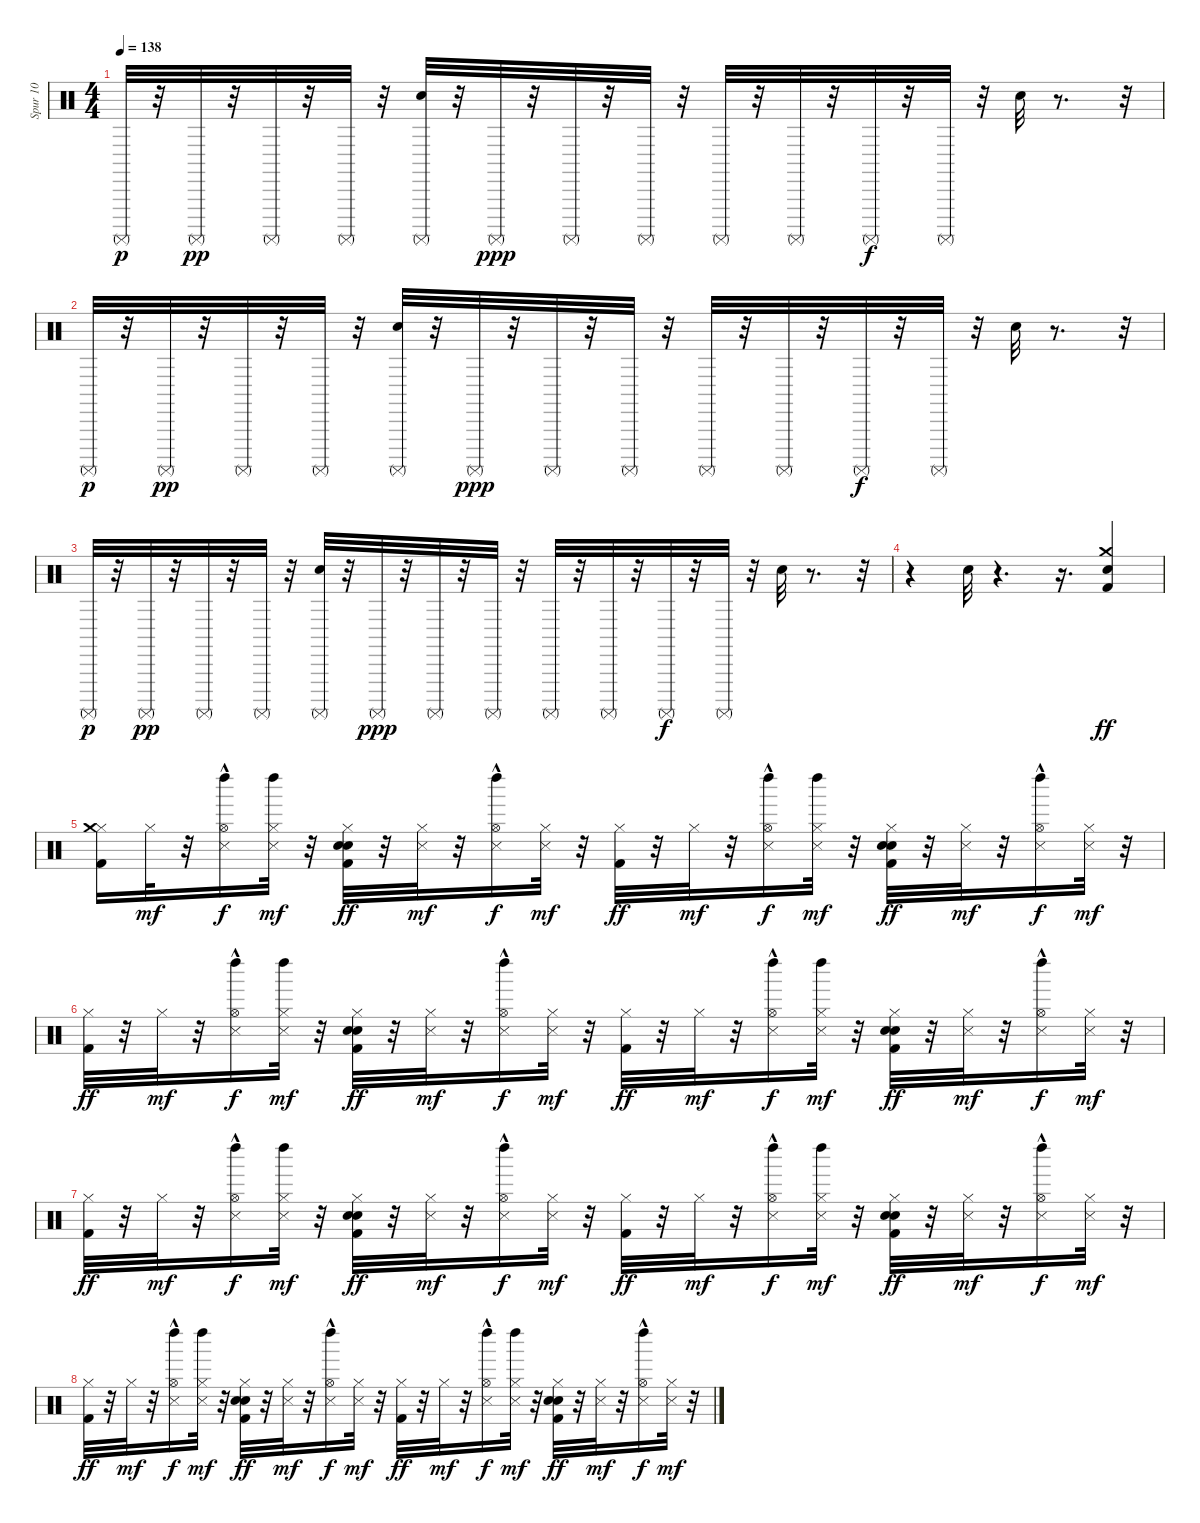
\track ("Spur 10" "Spur 10") {instrument percussion}
\staff {score}
\articulation defaults
\ts (4 4)
\tempo 138
\clef neutral
\ks c "Surdo (mute)".32{dy p}
r.32 "Surdo (mute)".32{dy pp} r.32 "Surdo (mute)".32 r.32 "Surdo (mute)".32 r.32 ("Hand Clap (hit)" "Surdo (mute)").32 r.32 "Surdo (mute)".32{dy ppp} r.32 "Surdo (mute)".32 r.32 "Surdo (mute)".32 r.32 "Surdo (mute)".32 r.32 "Surdo (mute)".32 r.32 "Surdo (mute)".32{dy f} r.32 "Surdo (mute)".32 r.32 "Hand Clap (hit)".32 r.8{d} r.32 |
"Surdo (mute)".32{dy p} r.32 "Surdo (mute)".32{dy pp} r.32 "Surdo (mute)".32 r.32 "Surdo (mute)".32 r.32 ("Hand Clap (hit)" "Surdo (mute)").32 r.32 "Surdo (mute)".32{dy ppp} r.32 "Surdo (mute)".32 r.32 "Surdo (mute)".32 r.32 "Surdo (mute)".32 r.32 "Surdo (mute)".32 r.32 "Surdo (mute)".32{dy f} r.32 "Surdo (mute)".32 r.32 "Hand Clap (hit)".32 r.8{d} r.32 |
"Surdo (mute)".32{dy p} r.32 "Surdo (mute)".32{dy pp} r.32 "Surdo (mute)".32 r.32 "Surdo (mute)".32 r.32 ("Hand Clap (hit)" "Surdo (mute)").32 r.32 "Surdo (mute)".32{dy ppp} r.32 "Surdo (mute)".32 r.32 "Surdo (mute)".32 r.32 "Surdo (mute)".32 r.32 "Surdo (mute)".32 r.32 "Surdo (mute)".32{dy f} r.32 "Surdo (mute)".32 r.32 "Hand Clap (hit)".32 r.8{d} r.32 |
r.4 "Hand Clap (hit)".32 r.4{d} r.16{d} ("Hand Clap (hit)" "Crash medium (hit)" "Kick (hit) 2").4{dy ff} |
("Hi-Hat (closed)" "Crash medium (hit)" "Kick (hit) 2").16 "Hi-Hat (closed)".32{dy mf} r.32 ("Snare (side stick) 3" "Hi-Hat (open)"{hac} "Left Maraca (hit)").16{dy f} ("Hi-Hat (closed)" "Snare (side stick) 3" "Left Maraca (hit)").32{dy mf} r.32 ("Hand Clap (hit)" "Hi-Hat (closed)" "Kick (hit) 2" "Electric Snare (hit)").32{dy ff} r.32 ("Hi-Hat (closed)" "Snare (side stick) 3").32{dy mf} r.32 ("Snare (side stick) 3" "Hi-Hat (open)"{hac} "Left Maraca (hit)").16{dy f} ("Hi-Hat (closed)" "Snare (side stick) 3").32{dy mf} r.32 ("Hi-Hat (closed)" "Kick (hit) 2").32{dy ff} r.32 "Hi-Hat (closed)".32{dy mf} r.32 ("Snare (side stick) 3" "Hi-Hat (open)"{hac} "Left Maraca (hit)").16{dy f} ("Hi-Hat (closed)" "Snare (side stick) 3" "Left Maraca (hit)").32{dy mf} r.32 ("Hand Clap (hit)" "Hi-Hat (closed)" "Kick (hit) 2" "Electric Snare (hit)").32{dy ff} r.32 ("Hi-Hat (closed)" "Snare (side stick) 3").32{dy mf} r.32 ("Snare (side stick) 3" "Hi-Hat (open)"{hac} "Left Maraca (hit)").16{dy f} ("Hi-Hat (closed)" "Snare (side stick) 3").32{dy mf} r.32 |
("Hi-Hat (closed)" "Kick (hit) 2").32{dy ff} r.32 "Hi-Hat (closed)".32{dy mf} r.32 ("Snare (side stick) 3" "Hi-Hat (open)"{hac} "Left Maraca (hit)").16{dy f} ("Hi-Hat (closed)" "Snare (side stick) 3" "Left Maraca (hit)").32{dy mf} r.32 ("Hand Clap (hit)" "Hi-Hat (closed)" "Kick (hit) 2" "Electric Snare (hit)").32{dy ff} r.32 ("Hi-Hat (closed)" "Snare (side stick) 3").32{dy mf} r.32 ("Snare (side stick) 3" "Hi-Hat (open)"{hac} "Left Maraca (hit)").16{dy f} ("Hi-Hat (closed)" "Snare (side stick) 3").32{dy mf} r.32 ("Hi-Hat (closed)" "Kick (hit) 2").32{dy ff} r.32 "Hi-Hat (closed)".32{dy mf} r.32 ("Snare (side stick) 3" "Hi-Hat (open)"{hac} "Left Maraca (hit)").16{dy f} ("Hi-Hat (closed)" "Snare (side stick) 3" "Left Maraca (hit)").32{dy mf} r.32 ("Hand Clap (hit)" "Hi-Hat (closed)" "Kick (hit) 2" "Electric Snare (hit)").32{dy ff} r.32 ("Hi-Hat (closed)" "Snare (side stick) 3").32{dy mf} r.32 ("Snare (side stick) 3" "Hi-Hat (open)"{hac} "Left Maraca (hit)").16{dy f} ("Hi-Hat (closed)" "Snare (side stick) 3").32{dy mf} r.32 |
("Hi-Hat (closed)" "Kick (hit) 2").32{dy ff} r.32 "Hi-Hat (closed)".32{dy mf} r.32 ("Snare (side stick) 3" "Hi-Hat (open)"{hac} "Left Maraca (hit)").16{dy f} ("Hi-Hat (closed)" "Snare (side stick) 3" "Left Maraca (hit)").32{dy mf} r.32 ("Hand Clap (hit)" "Hi-Hat (closed)" "Kick (hit) 2" "Electric Snare (hit)").32{dy ff} r.32 ("Hi-Hat (closed)" "Snare (side stick) 3").32{dy mf} r.32 ("Snare (side stick) 3" "Hi-Hat (open)"{hac} "Left Maraca (hit)").16{dy f} ("Hi-Hat (closed)" "Snare (side stick) 3").32{dy mf} r.32 ("Hi-Hat (closed)" "Kick (hit) 2").32{dy ff} r.32 "Hi-Hat (closed)".32{dy mf} r.32 ("Snare (side stick) 3" "Hi-Hat (open)"{hac} "Left Maraca (hit)").16{dy f} ("Hi-Hat (closed)" "Snare (side stick) 3" "Left Maraca (hit)").32{dy mf} r.32 ("Hand Clap (hit)" "Hi-Hat (closed)" "Kick (hit) 2" "Electric Snare (hit)").32{dy ff} r.32 ("Hi-Hat (closed)" "Snare (side stick) 3").32{dy mf} r.32 ("Snare (side stick) 3" "Hi-Hat (open)"{hac} "Left Maraca (hit)").16{dy f} ("Hi-Hat (closed)" "Snare (side stick) 3").32{dy mf} r.32 |
("Hi-Hat (closed)" "Kick (hit) 2").32{dy ff} r.32 "Hi-Hat (closed)".32{dy mf} r.32 ("Snare (side stick) 3" "Hi-Hat (open)"{hac} "Left Maraca (hit)").16{dy f} ("Hi-Hat (closed)" "Snare (side stick) 3" "Left Maraca (hit)").32{dy mf} r.32 ("Hand Clap (hit)" "Hi-Hat (closed)" "Kick (hit) 2" "Electric Snare (hit)").32{dy ff} r.32 ("Hi-Hat (closed)" "Snare (side stick) 3").32{dy mf} r.32 ("Snare (side stick) 3" "Hi-Hat (open)"{hac} "Left Maraca (hit)").16{dy f} ("Hi-Hat (closed)" "Snare (side stick) 3").32{dy mf} r.32 ("Hi-Hat (closed)" "Kick (hit) 2").32{dy ff} r.32 "Hi-Hat (closed)".32{dy mf} r.32 ("Snare (side stick) 3" "Hi-Hat (open)"{hac} "Left Maraca (hit)").16{dy f} ("Hi-Hat (closed)" "Snare (side stick) 3" "Left Maraca (hit)").32{dy mf} r.32 ("Hand Clap (hit)" "Hi-Hat (closed)" "Kick (hit) 2" "Electric Snare (hit)").32{dy ff} r.32 ("Hi-Hat (closed)" "Snare (side stick) 3").32{dy mf} r.32 ("Snare (side stick) 3" "Hi-Hat (open)"{hac} "Left Maraca (hit)").16{dy f} ("Hi-Hat (closed)" "Snare (side stick) 3").32{dy mf} r.32
